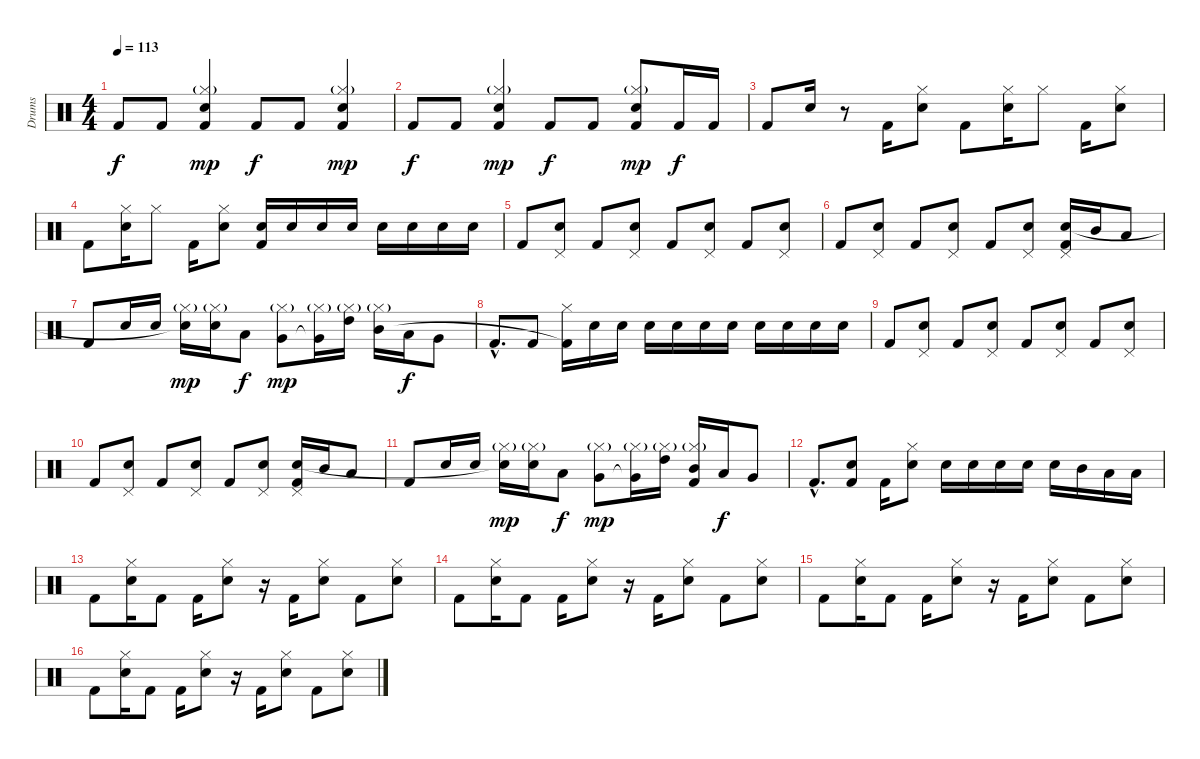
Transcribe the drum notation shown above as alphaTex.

\track ("Drums" "Drums") {instrument percussion}
\staff {score}
\articulation defaults
\ts (4 4)
\tempo 113
\clef neutral
\ks c "Kick (hit) 2".8{dy f} "Kick (hit) 2".8
("Hi-Hat (closed)"{g} "Electric Snare (hit)" "Kick (hit) 2").4{dy mp} "Kick (hit) 2".8{dy f} "Kick (hit) 2".8 ("Hi-Hat (closed)"{g} "Electric Snare (hit)" "Kick (hit) 2").4{dy mp} |
"Kick (hit) 2".8{dy f} "Kick (hit) 2".8 ("Hi-Hat (closed)"{g} "Electric Snare (hit)" "Kick (hit) 2").4{dy mp} "Kick (hit) 2".8{dy f} "Kick (hit) 2".8 ("Hi-Hat (closed)"{g} "Electric Snare (hit)" "Kick (hit) 2").8{dy mp} "Kick (hit) 2".16{dy f} "Kick (hit) 2".16 |
"Kick (hit) 2".8 "Electric Snare (hit)".16 r.8 "Kick (hit) 2".16 ("Hi-Hat (closed)" "Electric Snare (hit)").8 "Kick (hit) 2".8 ("Hi-Hat (closed)" "Electric Snare (hit)").16 "Hi-Hat (closed)".8 "Kick (hit) 2".16 ("Hi-Hat (closed)" "Electric Snare (hit)").8 |
"Kick (hit) 2".8 ("Hi-Hat (closed)" "Electric Snare (hit)").16 "Hi-Hat (closed)".8 "Kick (hit) 2".16 ("Hi-Hat (closed)" "Electric Snare (hit)").8 ("Electric Snare (hit)" "Kick (hit) 2").16 "Electric Snare (hit)".16 "Electric Snare (hit)".16 "Electric Snare (hit)".16 "Electric Snare (hit)".16 "Electric Snare (hit)".16 "Electric Snare (hit)".16 "Electric Snare (hit)".16 |
"Kick (hit) 2".8 ("Pedal Hi-Hat (hit)" "Electric Snare (hit)").8 "Kick (hit) 2".8 ("Pedal Hi-Hat (hit)" "Electric Snare (hit)").8 "Kick (hit) 2".8 ("Pedal Hi-Hat (hit)" "Electric Snare (hit)").8 "Kick (hit) 2".8 ("Pedal Hi-Hat (hit)" "Electric Snare (hit)").8 |
"Kick (hit) 2".8 ("Pedal Hi-Hat (hit)" "Electric Snare (hit)").8 "Kick (hit) 2".8 ("Pedal Hi-Hat (hit)" "Electric Snare (hit)").8 "Kick (hit) 2".8 ("Pedal Hi-Hat (hit)" "Electric Snare (hit)").8 ("Pedal Hi-Hat (hit)" "Electric Snare (hit)" "Kick (hit) 2").16 "Mid Tom (hit)".16 "Low Tom (hit)".8 |
"Kick (hit) 2".8 "Electric Snare (hit)".16 "Electric Snare (hit)".16 ("Hi-Hat (closed)"{g} "Electric Snare (hit)"{t}).16{dy mp} ("Hi-Hat (closed)"{g} "Snare (hit)").16 "Low Tom (hit)".8{dy f} ("Hi-Hat (closed)"{g} "Very Low Tom (hit)").8{dy mp} ("Hi-Hat (closed)"{g} "Very Low Tom (hit)"{t}).16 ("Hi-Hat (closed)"{g} "High Tom (hit)").16 ("Hi-Hat (closed)"{g} "Mid Tom (hit)").16 "Low Tom (hit)".16{dy f} "Very Low Tom (hit)".8 |
"Kick (hit) 2"{hac}.8{d} "Kick (hit) 2".8 ("Hi-Hat (closed)" "Kick (hit) 2"{t}).16 "Electric Snare (hit)".16 "Electric Snare (hit)".16 "Electric Snare (hit)".16 "Electric Snare (hit)".16 "Electric Snare (hit)".16 "Electric Snare (hit)".16 "Electric Snare (hit)".16 "Electric Snare (hit)".16 "Electric Snare (hit)".16 "Electric Snare (hit)".16 |
"Kick (hit) 2".8 ("Pedal Hi-Hat (hit)" "Electric Snare (hit)").8 "Kick (hit) 2".8 ("Pedal Hi-Hat (hit)" "Electric Snare (hit)").8 "Kick (hit) 2".8 ("Pedal Hi-Hat (hit)" "Electric Snare (hit)").8 "Kick (hit) 2".8 ("Pedal Hi-Hat (hit)" "Electric Snare (hit)").8 |
"Kick (hit) 2".8 ("Pedal Hi-Hat (hit)" "Electric Snare (hit)").8 "Kick (hit) 2".8 ("Pedal Hi-Hat (hit)" "Electric Snare (hit)").8 "Kick (hit) 2".8 ("Pedal Hi-Hat (hit)" "Electric Snare (hit)").8 ("Pedal Hi-Hat (hit)" "Electric Snare (hit)" "Kick (hit) 2").16 "Mid Tom (hit)".16 "Low Tom (hit)".8 |
"Kick (hit) 2".8 "Electric Snare (hit)".16 "Electric Snare (hit)".16 ("Hi-Hat (closed)"{g} "Electric Snare (hit)"{t}).16{dy mp} ("Hi-Hat (closed)"{g} "Snare (hit)").16 "Low Tom (hit)".8{dy f} ("Hi-Hat (closed)"{g} "Very Low Tom (hit)").8{dy mp} ("Hi-Hat (closed)"{g} "Very Low Tom (hit)"{t}).16 ("Hi-Hat (closed)"{g} "High Tom (hit)").16 ("Hi-Hat (closed)"{g} "Mid Tom (hit)" "Kick (hit) 2").16 "Low Tom (hit)".16{dy f} "Very Low Tom (hit)".8 |
"Kick (hit) 2"{hac}.8{d} ("Electric Snare (hit)" "Kick (hit) 2").8 "Kick (hit) 2".16 ("Hi-Hat (closed)" "Electric Snare (hit)").8 "Electric Snare (hit)".16 "Electric Snare (hit)".16 "Electric Snare (hit)".16 "Electric Snare (hit)".16 "Electric Snare (hit)".16 "Mid Tom (hit)".16 "Low Tom (hit)".16 "Low Floor Tom (hit)".16 |
"Kick (hit) 2".8 ("Hi-Hat (closed)" "Electric Snare (hit)").16 "Kick (hit) 2".8 "Kick (hit) 2".16 ("Hi-Hat (closed)" "Electric Snare (hit)").8 r.16 "Kick (hit) 2".16 ("Hi-Hat (closed)" "Electric Snare (hit)").8 "Kick (hit) 2".8 ("Hi-Hat (closed)" "Electric Snare (hit)").8 |
"Kick (hit) 2".8 ("Hi-Hat (closed)" "Electric Snare (hit)").16 "Kick (hit) 2".8 "Kick (hit) 2".16 ("Hi-Hat (closed)" "Electric Snare (hit)").8 r.16 "Kick (hit) 2".16 ("Hi-Hat (closed)" "Electric Snare (hit)").8 "Kick (hit) 2".8 ("Hi-Hat (closed)" "Electric Snare (hit)").8 |
"Kick (hit) 2".8 ("Hi-Hat (closed)" "Electric Snare (hit)").16 "Kick (hit) 2".8 "Kick (hit) 2".16 ("Hi-Hat (closed)" "Electric Snare (hit)").8 r.16 "Kick (hit) 2".16 ("Hi-Hat (closed)" "Electric Snare (hit)").8 "Kick (hit) 2".8 ("Hi-Hat (closed)" "Electric Snare (hit)").8 |
"Kick (hit) 2".8 ("Hi-Hat (closed)" "Electric Snare (hit)").16 "Kick (hit) 2".8 "Kick (hit) 2".16 ("Hi-Hat (closed)" "Electric Snare (hit)").8 r.16 "Kick (hit) 2".16 ("Hi-Hat (closed)" "Electric Snare (hit)").8 "Kick (hit) 2".8 ("Hi-Hat (closed)" "Electric Snare (hit)").8
